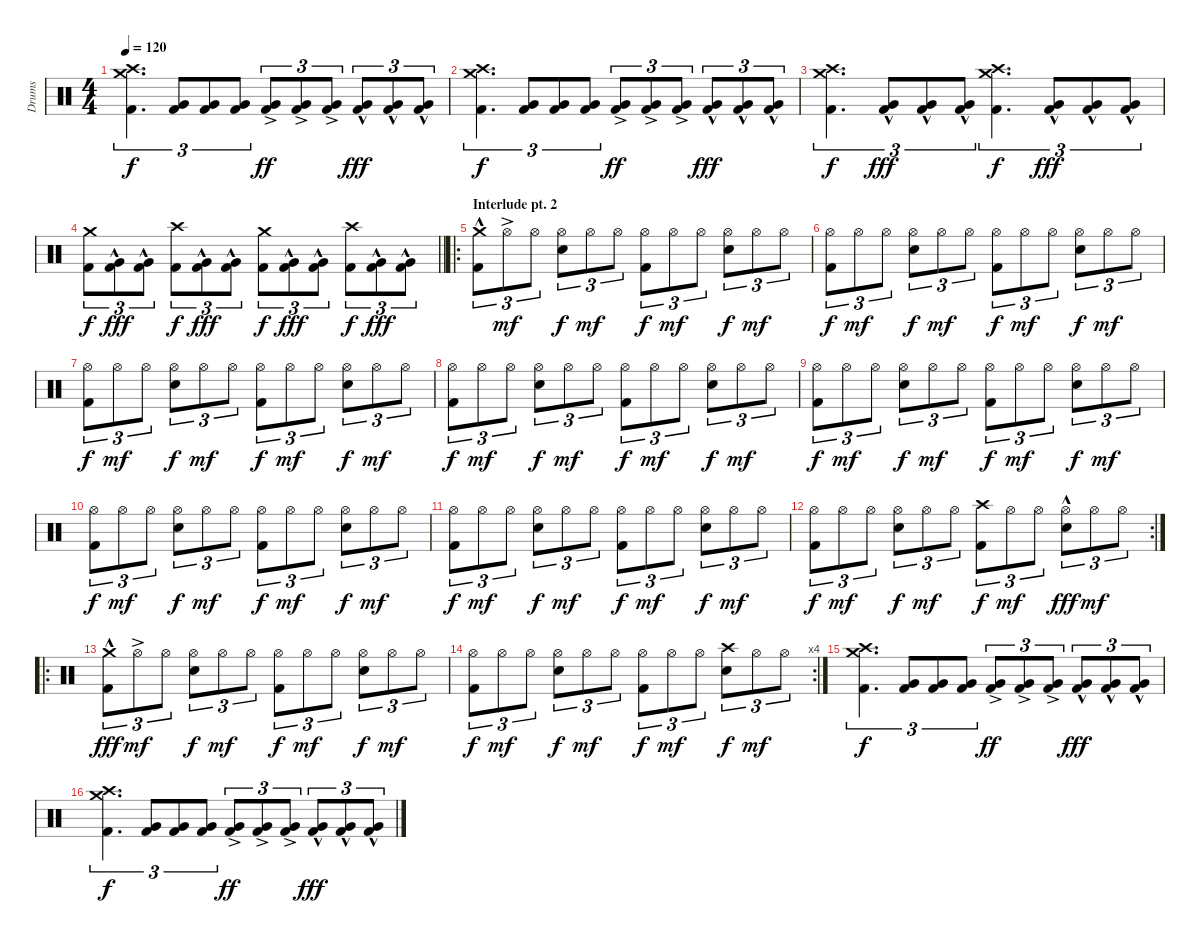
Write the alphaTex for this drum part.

\track ("Drums" "Drums") {instrument percussion}
\staff {score}
\articulation defaults
\ts (4 4)
\tempo 120
\clef neutral
\ks c
("Crash high (hit)" "Crash medium (hit)" "Kick (hit) 2").4{d tu (3 2) dy f} ("Very Low Tom (hit)" "Kick (hit) 2").8{tu (3 2)} ("Very Low Tom (hit)" "Kick (hit) 2").8{tu (3 2)} ("Very Low Tom (hit)" "Kick (hit) 2").8{tu (3 2)} ("Very Low Tom (hit)"{ac} "Kick (hit) 2").8{tu (3 2) dy ff} ("Very Low Tom (hit)"{ac} "Kick (hit) 2").8{tu (3 2)} ("Very Low Tom (hit)"{ac} "Kick (hit) 2").8{tu (3 2)} ("Very Low Tom (hit)"{hac} "Kick (hit) 2").8{tu (3 2) dy fff} ("Very Low Tom (hit)"{hac} "Kick (hit) 2").8{tu (3 2)} ("Very Low Tom (hit)"{hac} "Kick (hit) 2").8{tu (3 2)} |
("Crash high (hit)" "Crash medium (hit)" "Kick (hit) 2").4{d tu (3 2) dy f} ("Very Low Tom (hit)" "Kick (hit) 2").8{tu (3 2)} ("Very Low Tom (hit)" "Kick (hit) 2").8{tu (3 2)} ("Very Low Tom (hit)" "Kick (hit) 2").8{tu (3 2)} ("Very Low Tom (hit)"{ac} "Kick (hit) 2").8{tu (3 2) dy ff} ("Very Low Tom (hit)"{ac} "Kick (hit) 2").8{tu (3 2)} ("Very Low Tom (hit)"{ac} "Kick (hit) 2").8{tu (3 2)} ("Very Low Tom (hit)"{hac} "Kick (hit) 2").8{tu (3 2) dy fff} ("Very Low Tom (hit)"{hac} "Kick (hit) 2").8{tu (3 2)} ("Very Low Tom (hit)"{hac} "Kick (hit) 2").8{tu (3 2)} |
("Crash high (hit)" "Crash medium (hit)" "Kick (hit) 2").4{d tu (3 2) dy f} ("Very Low Tom (hit)"{hac} "Kick (hit) 2").8{tu (3 2) dy fff} ("Very Low Tom (hit)"{hac} "Kick (hit) 2").8{tu (3 2)} ("Very Low Tom (hit)"{hac} "Kick (hit) 2").8{tu (3 2)} ("Crash high (hit)" "Crash medium (hit)" "Kick (hit) 2").4{d tu (3 2) dy f} ("Very Low Tom (hit)"{hac} "Kick (hit) 2").8{tu (3 2) dy fff} ("Very Low Tom (hit)"{hac} "Kick (hit) 2").8{tu (3 2)} ("Very Low Tom (hit)"{hac} "Kick (hit) 2").8{tu (3 2)} |
\barLineRight lightlight
("Crash medium (hit)" "Kick (hit) 2").8{tu (3 2) dy f} ("Very Low Tom (hit)"{hac} "Kick (hit) 2").8{tu (3 2) dy fff} ("Very Low Tom (hit)"{hac} "Kick (hit) 2").8{tu (3 2)} ("Crash high (hit)" "Kick (hit) 2").8{tu (3 2) dy f} ("Very Low Tom (hit)"{hac} "Kick (hit) 2").8{tu (3 2) dy fff} ("Very Low Tom (hit)"{hac} "Kick (hit) 2").8{tu (3 2)} ("Crash medium (hit)" "Kick (hit) 2").8{tu (3 2) dy f} ("Very Low Tom (hit)"{hac} "Kick (hit) 2").8{tu (3 2) dy fff} ("Very Low Tom (hit)"{hac} "Kick (hit) 2").8{tu (3 2)} ("Crash high (hit)" "Kick (hit) 2").8{tu (3 2) dy f} ("Very Low Tom (hit)"{hac} "Kick (hit) 2").8{tu (3 2) dy fff} ("Very Low Tom (hit)"{hac} "Kick (hit) 2").8{tu (3 2)} |
\ro
\section ("" "Interlude pt. 2")
("Crash medium (hit)"{hac} "Kick (hit) 2"{hac}).8{tu (3 2)} "Hi-Hat (open)"{ac}.8{tu (3 2) dy mf} "Hi-Hat (open)".8{tu (3 2)} ("Hi-Hat (open)" "Snare (hit) 2").8{tu (3 2) dy f} "Hi-Hat (open)".8{tu (3 2) dy mf} "Hi-Hat (open)".8{tu (3 2)} ("Hi-Hat (open)" "Kick (hit) 2").8{tu (3 2) dy f} "Hi-Hat (open)".8{tu (3 2) dy mf} "Hi-Hat (open)".8{tu (3 2)} ("Hi-Hat (open)" "Snare (hit) 2").8{tu (3 2) dy f} "Hi-Hat (open)".8{tu (3 2) dy mf} "Hi-Hat (open)".8{tu (3 2)} |
("Hi-Hat (open)" "Kick (hit) 2").8{tu (3 2) dy f} "Hi-Hat (open)".8{tu (3 2) dy mf} "Hi-Hat (open)".8{tu (3 2)} ("Hi-Hat (open)" "Snare (hit) 2").8{tu (3 2) dy f} "Hi-Hat (open)".8{tu (3 2) dy mf} "Hi-Hat (open)".8{tu (3 2)} ("Hi-Hat (open)" "Kick (hit) 2").8{tu (3 2) dy f} "Hi-Hat (open)".8{tu (3 2) dy mf} "Hi-Hat (open)".8{tu (3 2)} ("Hi-Hat (open)" "Snare (hit) 2").8{tu (3 2) dy f} "Hi-Hat (open)".8{tu (3 2) dy mf} "Hi-Hat (open)".8{tu (3 2)} |
("Hi-Hat (open)" "Kick (hit) 2").8{tu (3 2) dy f} "Hi-Hat (open)".8{tu (3 2) dy mf} "Hi-Hat (open)".8{tu (3 2)} ("Hi-Hat (open)" "Snare (hit) 2").8{tu (3 2) dy f} "Hi-Hat (open)".8{tu (3 2) dy mf} "Hi-Hat (open)".8{tu (3 2)} ("Hi-Hat (open)" "Kick (hit) 2").8{tu (3 2) dy f} "Hi-Hat (open)".8{tu (3 2) dy mf} "Hi-Hat (open)".8{tu (3 2)} ("Hi-Hat (open)" "Snare (hit) 2").8{tu (3 2) dy f} "Hi-Hat (open)".8{tu (3 2) dy mf} "Hi-Hat (open)".8{tu (3 2)} |
("Hi-Hat (open)" "Kick (hit) 2").8{tu (3 2) dy f} "Hi-Hat (open)".8{tu (3 2) dy mf} "Hi-Hat (open)".8{tu (3 2)} ("Hi-Hat (open)" "Snare (hit) 2").8{tu (3 2) dy f} "Hi-Hat (open)".8{tu (3 2) dy mf} "Hi-Hat (open)".8{tu (3 2)} ("Hi-Hat (open)" "Kick (hit) 2").8{tu (3 2) dy f} "Hi-Hat (open)".8{tu (3 2) dy mf} "Hi-Hat (open)".8{tu (3 2)} ("Hi-Hat (open)" "Snare (hit) 2").8{tu (3 2) dy f} "Hi-Hat (open)".8{tu (3 2) dy mf} "Hi-Hat (open)".8{tu (3 2)} |
("Hi-Hat (open)" "Kick (hit) 2").8{tu (3 2) dy f} "Hi-Hat (open)".8{tu (3 2) dy mf} "Hi-Hat (open)".8{tu (3 2)} ("Hi-Hat (open)" "Snare (hit) 2").8{tu (3 2) dy f} "Hi-Hat (open)".8{tu (3 2) dy mf} "Hi-Hat (open)".8{tu (3 2)} ("Hi-Hat (open)" "Kick (hit) 2").8{tu (3 2) dy f} "Hi-Hat (open)".8{tu (3 2) dy mf} "Hi-Hat (open)".8{tu (3 2)} ("Hi-Hat (open)" "Snare (hit) 2").8{tu (3 2) dy f} "Hi-Hat (open)".8{tu (3 2) dy mf} "Hi-Hat (open)".8{tu (3 2)} |
("Hi-Hat (open)" "Kick (hit) 2").8{tu (3 2) dy f} "Hi-Hat (open)".8{tu (3 2) dy mf} "Hi-Hat (open)".8{tu (3 2)} ("Hi-Hat (open)" "Snare (hit) 2").8{tu (3 2) dy f} "Hi-Hat (open)".8{tu (3 2) dy mf} "Hi-Hat (open)".8{tu (3 2)} ("Hi-Hat (open)" "Kick (hit) 2").8{tu (3 2) dy f} "Hi-Hat (open)".8{tu (3 2) dy mf} "Hi-Hat (open)".8{tu (3 2)} ("Hi-Hat (open)" "Snare (hit) 2").8{tu (3 2) dy f} "Hi-Hat (open)".8{tu (3 2) dy mf} "Hi-Hat (open)".8{tu (3 2)} |
("Hi-Hat (open)" "Kick (hit) 2").8{tu (3 2) dy f} "Hi-Hat (open)".8{tu (3 2) dy mf} "Hi-Hat (open)".8{tu (3 2)} ("Hi-Hat (open)" "Snare (hit) 2").8{tu (3 2) dy f} "Hi-Hat (open)".8{tu (3 2) dy mf} "Hi-Hat (open)".8{tu (3 2)} ("Hi-Hat (open)" "Kick (hit) 2").8{tu (3 2) dy f} "Hi-Hat (open)".8{tu (3 2) dy mf} "Hi-Hat (open)".8{tu (3 2)} ("Hi-Hat (open)" "Snare (hit) 2").8{tu (3 2) dy f} "Hi-Hat (open)".8{tu (3 2) dy mf} "Hi-Hat (open)".8{tu (3 2)} |
\rc 2
("Hi-Hat (open)" "Kick (hit) 2").8{tu (3 2) dy f} "Hi-Hat (open)".8{tu (3 2) dy mf} "Hi-Hat (open)".8{tu (3 2)} ("Hi-Hat (open)" "Snare (hit) 2").8{tu (3 2) dy f} "Hi-Hat (open)".8{tu (3 2) dy mf} "Hi-Hat (open)".8{tu (3 2)} ("Crash high (hit)" "Kick (hit) 2").8{tu (3 2) dy f} "Hi-Hat (open)".8{tu (3 2) dy mf} "Hi-Hat (open)".8{tu (3 2)} ("Hi-Hat (open)" "Snare (hit) 2"{hac}).8{tu (3 2) dy fff} "Hi-Hat (open)".8{tu (3 2) dy mf} "Hi-Hat (open)".8{tu (3 2)} |
\ro
("Crash medium (hit)"{hac} "Kick (hit) 2"{hac}).8{tu (3 2) dy fff} "Hi-Hat (open)"{ac}.8{tu (3 2) dy mf} "Hi-Hat (open)".8{tu (3 2)} ("Hi-Hat (open)" "Snare (hit) 2").8{tu (3 2) dy f} "Hi-Hat (open)".8{tu (3 2) dy mf} "Hi-Hat (open)".8{tu (3 2)} ("Hi-Hat (open)" "Kick (hit) 2").8{tu (3 2) dy f} "Hi-Hat (open)".8{tu (3 2) dy mf} "Hi-Hat (open)".8{tu (3 2)} ("Hi-Hat (open)" "Snare (hit) 2").8{tu (3 2) dy f} "Hi-Hat (open)".8{tu (3 2) dy mf} "Hi-Hat (open)".8{tu (3 2)} |
\rc 4
("Hi-Hat (open)" "Kick (hit) 2").8{tu (3 2) dy f} "Hi-Hat (open)".8{tu (3 2) dy mf} "Hi-Hat (open)".8{tu (3 2)} ("Hi-Hat (open)" "Snare (hit) 2").8{tu (3 2) dy f} "Hi-Hat (open)".8{tu (3 2) dy mf} "Hi-Hat (open)".8{tu (3 2)} ("Hi-Hat (open)" "Kick (hit) 2").8{tu (3 2) dy f} "Hi-Hat (open)".8{tu (3 2) dy mf} "Hi-Hat (open)".8{tu (3 2)} ("Crash high (hit)" "Snare (hit) 2").8{tu (3 2) dy f} "Hi-Hat (open)".8{tu (3 2) dy mf} "Hi-Hat (open)".8{tu (3 2)} |
("Crash high (hit)" "Crash medium (hit)" "Kick (hit) 2").4{d tu (3 2) dy f} ("Very Low Tom (hit)" "Kick (hit) 2").8{tu (3 2)} ("Very Low Tom (hit)" "Kick (hit) 2").8{tu (3 2)} ("Very Low Tom (hit)" "Kick (hit) 2").8{tu (3 2)} ("Very Low Tom (hit)"{ac} "Kick (hit) 2").8{tu (3 2) dy ff} ("Very Low Tom (hit)"{ac} "Kick (hit) 2").8{tu (3 2)} ("Very Low Tom (hit)"{ac} "Kick (hit) 2").8{tu (3 2)} ("Very Low Tom (hit)"{hac} "Kick (hit) 2").8{tu (3 2) dy fff} ("Very Low Tom (hit)"{hac} "Kick (hit) 2").8{tu (3 2)} ("Very Low Tom (hit)"{hac} "Kick (hit) 2").8{tu (3 2)} |
("Crash high (hit)" "Crash medium (hit)" "Kick (hit) 2").4{d tu (3 2) dy f} ("Very Low Tom (hit)" "Kick (hit) 2").8{tu (3 2)} ("Very Low Tom (hit)" "Kick (hit) 2").8{tu (3 2)} ("Very Low Tom (hit)" "Kick (hit) 2").8{tu (3 2)} ("Very Low Tom (hit)"{ac} "Kick (hit) 2").8{tu (3 2) dy ff} ("Very Low Tom (hit)"{ac} "Kick (hit) 2").8{tu (3 2)} ("Very Low Tom (hit)"{ac} "Kick (hit) 2").8{tu (3 2)} ("Very Low Tom (hit)"{hac} "Kick (hit) 2").8{tu (3 2) dy fff} ("Very Low Tom (hit)"{hac} "Kick (hit) 2").8{tu (3 2)} ("Very Low Tom (hit)"{hac} "Kick (hit) 2").8{tu (3 2)}
